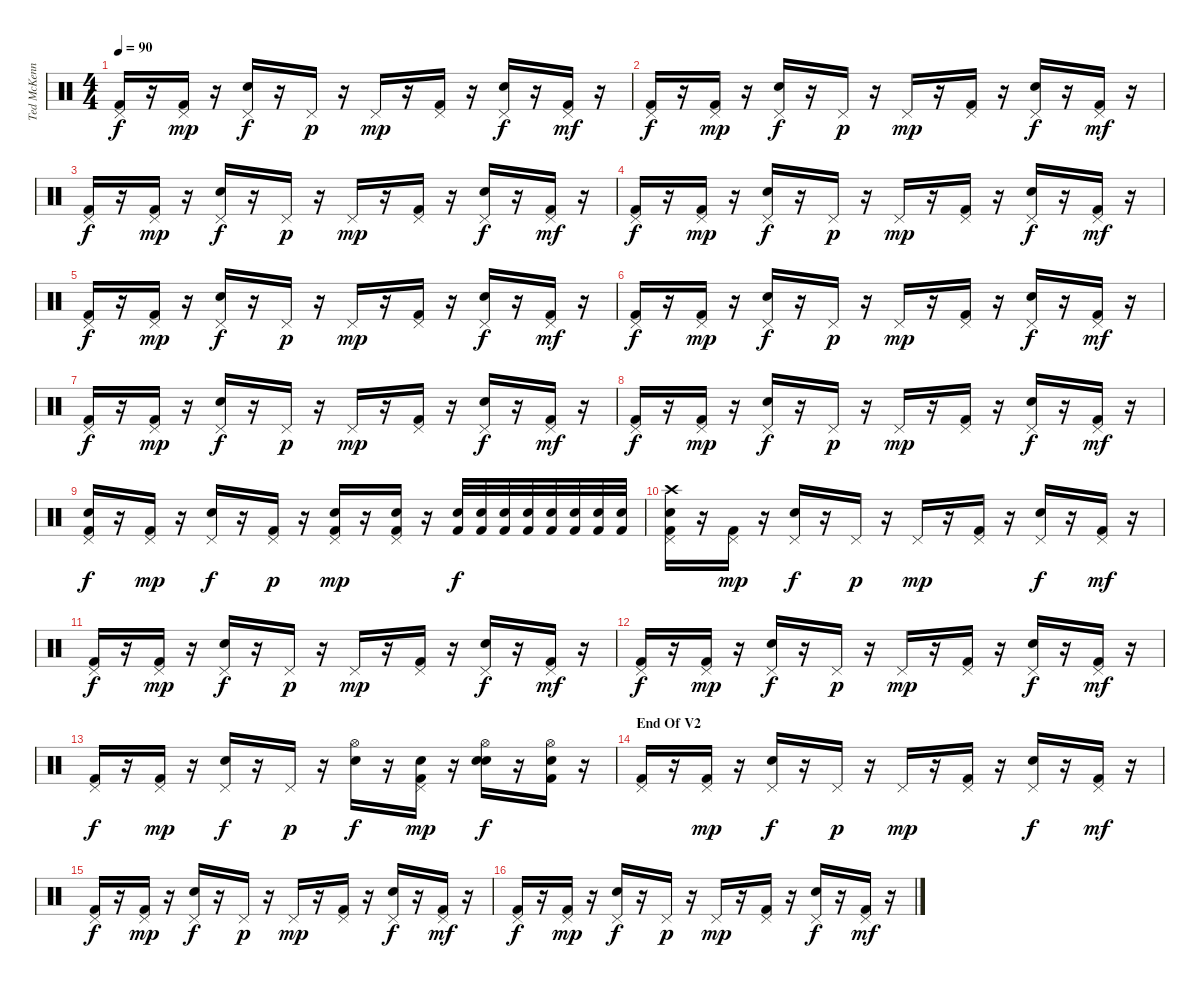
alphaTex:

\track ("Ted McKenna" "Ted McKenn") {instrument percussion}
\staff {score}
\articulation defaults
\ts (4 4)
\tempo 90
\clef neutral
\ks c
("Pedal Hi-Hat (hit)" "Kick (hit) 2").16{dy f} r.16 ("Pedal Hi-Hat (hit)" "Kick (hit) 2").16{dy mp} r.16 ("Pedal Hi-Hat (hit)" "Snare (hit) 2").16{dy f} r.16 "Pedal Hi-Hat (hit)".16{dy p} r.16 "Pedal Hi-Hat (hit)".16{dy mp} r.16 ("Pedal Hi-Hat (hit)" "Kick (hit) 2").16 r.16 ("Pedal Hi-Hat (hit)" "Snare (hit) 2").16{dy f} r.16 ("Pedal Hi-Hat (hit)" "Kick (hit) 2").16{dy mf} r.16 |
("Pedal Hi-Hat (hit)" "Kick (hit) 2").16{dy f} r.16 ("Pedal Hi-Hat (hit)" "Kick (hit) 2").16{dy mp} r.16 ("Pedal Hi-Hat (hit)" "Snare (hit) 2").16{dy f} r.16 "Pedal Hi-Hat (hit)".16{dy p} r.16 "Pedal Hi-Hat (hit)".16{dy mp} r.16 ("Pedal Hi-Hat (hit)" "Kick (hit) 2").16 r.16 ("Pedal Hi-Hat (hit)" "Snare (hit) 2").16{dy f} r.16 ("Pedal Hi-Hat (hit)" "Kick (hit) 2").16{dy mf} r.16 |
("Pedal Hi-Hat (hit)" "Kick (hit) 2").16{dy f} r.16 ("Pedal Hi-Hat (hit)" "Kick (hit) 2").16{dy mp} r.16 ("Pedal Hi-Hat (hit)" "Snare (hit) 2").16{dy f} r.16 "Pedal Hi-Hat (hit)".16{dy p} r.16 "Pedal Hi-Hat (hit)".16{dy mp} r.16 ("Pedal Hi-Hat (hit)" "Kick (hit) 2").16 r.16 ("Pedal Hi-Hat (hit)" "Snare (hit) 2").16{dy f} r.16 ("Pedal Hi-Hat (hit)" "Kick (hit) 2").16{dy mf} r.16 |
("Pedal Hi-Hat (hit)" "Kick (hit) 2").16{dy f} r.16 ("Pedal Hi-Hat (hit)" "Kick (hit) 2").16{dy mp} r.16 ("Pedal Hi-Hat (hit)" "Snare (hit) 2").16{dy f} r.16 "Pedal Hi-Hat (hit)".16{dy p} r.16 "Pedal Hi-Hat (hit)".16{dy mp} r.16 ("Pedal Hi-Hat (hit)" "Kick (hit) 2").16 r.16 ("Pedal Hi-Hat (hit)" "Snare (hit) 2").16{dy f} r.16 ("Pedal Hi-Hat (hit)" "Kick (hit) 2").16{dy mf} r.16 |
("Pedal Hi-Hat (hit)" "Kick (hit) 2").16{dy f} r.16 ("Pedal Hi-Hat (hit)" "Kick (hit) 2").16{dy mp} r.16 ("Pedal Hi-Hat (hit)" "Snare (hit) 2").16{dy f} r.16 "Pedal Hi-Hat (hit)".16{dy p} r.16 "Pedal Hi-Hat (hit)".16{dy mp} r.16 ("Pedal Hi-Hat (hit)" "Kick (hit) 2").16 r.16 ("Pedal Hi-Hat (hit)" "Snare (hit) 2").16{dy f} r.16 ("Pedal Hi-Hat (hit)" "Kick (hit) 2").16{dy mf} r.16 |
("Pedal Hi-Hat (hit)" "Kick (hit) 2").16{dy f} r.16 ("Pedal Hi-Hat (hit)" "Kick (hit) 2").16{dy mp} r.16 ("Pedal Hi-Hat (hit)" "Snare (hit) 2").16{dy f} r.16 "Pedal Hi-Hat (hit)".16{dy p} r.16 "Pedal Hi-Hat (hit)".16{dy mp} r.16 ("Pedal Hi-Hat (hit)" "Kick (hit) 2").16 r.16 ("Pedal Hi-Hat (hit)" "Snare (hit) 2").16{dy f} r.16 ("Pedal Hi-Hat (hit)" "Kick (hit) 2").16{dy mf} r.16 |
("Pedal Hi-Hat (hit)" "Kick (hit) 2").16{dy f} r.16 ("Pedal Hi-Hat (hit)" "Kick (hit) 2").16{dy mp} r.16 ("Pedal Hi-Hat (hit)" "Snare (hit) 2").16{dy f} r.16 "Pedal Hi-Hat (hit)".16{dy p} r.16 "Pedal Hi-Hat (hit)".16{dy mp} r.16 ("Pedal Hi-Hat (hit)" "Kick (hit) 2").16 r.16 ("Pedal Hi-Hat (hit)" "Snare (hit) 2").16{dy f} r.16 ("Pedal Hi-Hat (hit)" "Kick (hit) 2").16{dy mf} r.16 |
("Pedal Hi-Hat (hit)" "Kick (hit) 2").16{dy f} r.16 ("Pedal Hi-Hat (hit)" "Kick (hit) 2").16{dy mp} r.16 ("Pedal Hi-Hat (hit)" "Snare (hit) 2").16{dy f} r.16 "Pedal Hi-Hat (hit)".16{dy p} r.16 "Pedal Hi-Hat (hit)".16{dy mp} r.16 ("Pedal Hi-Hat (hit)" "Kick (hit) 2").16 r.16 ("Pedal Hi-Hat (hit)" "Snare (hit) 2").16{dy f} r.16 ("Pedal Hi-Hat (hit)" "Kick (hit) 2").16{dy mf} r.16 |
("Pedal Hi-Hat (hit)" "Snare (hit) 2" "Kick (hit) 2").16{dy f} r.16 ("Pedal Hi-Hat (hit)" "Kick (hit) 2").16{dy mp} r.16 ("Pedal Hi-Hat (hit)" "Snare (hit) 2").16{dy f} r.16 ("Pedal Hi-Hat (hit)" "Kick (hit) 2").16{dy p} r.16 ("Pedal Hi-Hat (hit)" "Snare (hit) 2" "Kick (hit) 2").16{dy mp} r.16 ("Pedal Hi-Hat (hit)" "Snare (hit) 2" "Kick (hit) 2").16 r.16 ("Kick (hit) 2" "Electric Snare (hit)").32{dy f} ("Kick (hit) 2" "Electric Snare (hit)").32 ("Kick (hit) 2" "Electric Snare (hit)").32 ("Kick (hit) 2" "Electric Snare (hit)").32 ("Kick (hit) 2" "Electric Snare (hit)").32 ("Kick (hit) 2" "Electric Snare (hit)").32 ("Kick (hit) 2" "Electric Snare (hit)").32 ("Kick (hit) 2" "Electric Snare (hit)").32 |
("Crash high (hit)" "Pedal Hi-Hat (hit)" "Electric Snare (hit)" "Kick (hit) 2").16 r.16 ("Pedal Hi-Hat (hit)" "Kick (hit) 2").16{dy mp} r.16 ("Pedal Hi-Hat (hit)" "Snare (hit) 2").16{dy f} r.16 "Pedal Hi-Hat (hit)".16{dy p} r.16 "Pedal Hi-Hat (hit)".16{dy mp} r.16 ("Pedal Hi-Hat (hit)" "Kick (hit) 2").16 r.16 ("Pedal Hi-Hat (hit)" "Snare (hit) 2").16{dy f} r.16 ("Pedal Hi-Hat (hit)" "Kick (hit) 2").16{dy mf} r.16 |
("Pedal Hi-Hat (hit)" "Kick (hit) 2").16{dy f} r.16 ("Pedal Hi-Hat (hit)" "Kick (hit) 2").16{dy mp} r.16 ("Pedal Hi-Hat (hit)" "Snare (hit) 2").16{dy f} r.16 "Pedal Hi-Hat (hit)".16{dy p} r.16 "Pedal Hi-Hat (hit)".16{dy mp} r.16 ("Pedal Hi-Hat (hit)" "Kick (hit) 2").16 r.16 ("Pedal Hi-Hat (hit)" "Snare (hit) 2").16{dy f} r.16 ("Pedal Hi-Hat (hit)" "Kick (hit) 2").16{dy mf} r.16 |
("Pedal Hi-Hat (hit)" "Kick (hit) 2").16{dy f} r.16 ("Pedal Hi-Hat (hit)" "Kick (hit) 2").16{dy mp} r.16 ("Pedal Hi-Hat (hit)" "Snare (hit) 2").16{dy f} r.16 "Pedal Hi-Hat (hit)".16{dy p} r.16 "Pedal Hi-Hat (hit)".16{dy mp} r.16 ("Pedal Hi-Hat (hit)" "Kick (hit) 2").16 r.16 ("Pedal Hi-Hat (hit)" "Snare (hit) 2").16{dy f} r.16 ("Pedal Hi-Hat (hit)" "Kick (hit) 2").16{dy mf} r.16 |
("Pedal Hi-Hat (hit)" "Kick (hit) 2").16{dy f} r.16 ("Pedal Hi-Hat (hit)" "Kick (hit) 2").16{dy mp} r.16 ("Pedal Hi-Hat (hit)" "Snare (hit) 2").16{dy f} r.16 "Pedal Hi-Hat (hit)".16{dy p} r.16 ("Hi-Hat (open)" "Electric Snare (hit)").16{dy f} r.16 ("Pedal Hi-Hat (hit)" "Electric Snare (hit)" "Kick (hit) 2").16{dy mp} r.16 ("Hi-Hat (open)" "Snare (hit) 2" "Electric Snare (hit)").16{dy f} r.16 ("Hi-Hat (open)" "Electric Snare (hit)" "Kick (hit) 2").16 r.16 |
\section ("" "End Of V2")
("Pedal Hi-Hat (hit)" "Kick (hit) 2").16 r.16 ("Pedal Hi-Hat (hit)" "Kick (hit) 2").16{dy mp} r.16 ("Pedal Hi-Hat (hit)" "Snare (hit) 2").16{dy f} r.16 "Pedal Hi-Hat (hit)".16{dy p} r.16 "Pedal Hi-Hat (hit)".16{dy mp} r.16 ("Pedal Hi-Hat (hit)" "Kick (hit) 2").16 r.16 ("Pedal Hi-Hat (hit)" "Snare (hit) 2").16{dy f} r.16 ("Pedal Hi-Hat (hit)" "Kick (hit) 2").16{dy mf} r.16 |
("Pedal Hi-Hat (hit)" "Kick (hit) 2").16{dy f} r.16 ("Pedal Hi-Hat (hit)" "Kick (hit) 2").16{dy mp} r.16 ("Pedal Hi-Hat (hit)" "Snare (hit) 2").16{dy f} r.16 "Pedal Hi-Hat (hit)".16{dy p} r.16 "Pedal Hi-Hat (hit)".16{dy mp} r.16 ("Pedal Hi-Hat (hit)" "Kick (hit) 2").16 r.16 ("Pedal Hi-Hat (hit)" "Snare (hit) 2").16{dy f} r.16 ("Pedal Hi-Hat (hit)" "Kick (hit) 2").16{dy mf} r.16 |
("Pedal Hi-Hat (hit)" "Kick (hit) 2").16{dy f} r.16 ("Pedal Hi-Hat (hit)" "Kick (hit) 2").16{dy mp} r.16 ("Pedal Hi-Hat (hit)" "Snare (hit) 2").16{dy f} r.16 "Pedal Hi-Hat (hit)".16{dy p} r.16 "Pedal Hi-Hat (hit)".16{dy mp} r.16 ("Pedal Hi-Hat (hit)" "Kick (hit) 2").16 r.16 ("Pedal Hi-Hat (hit)" "Snare (hit) 2").16{dy f} r.16 ("Pedal Hi-Hat (hit)" "Kick (hit) 2").16{dy mf} r.16
